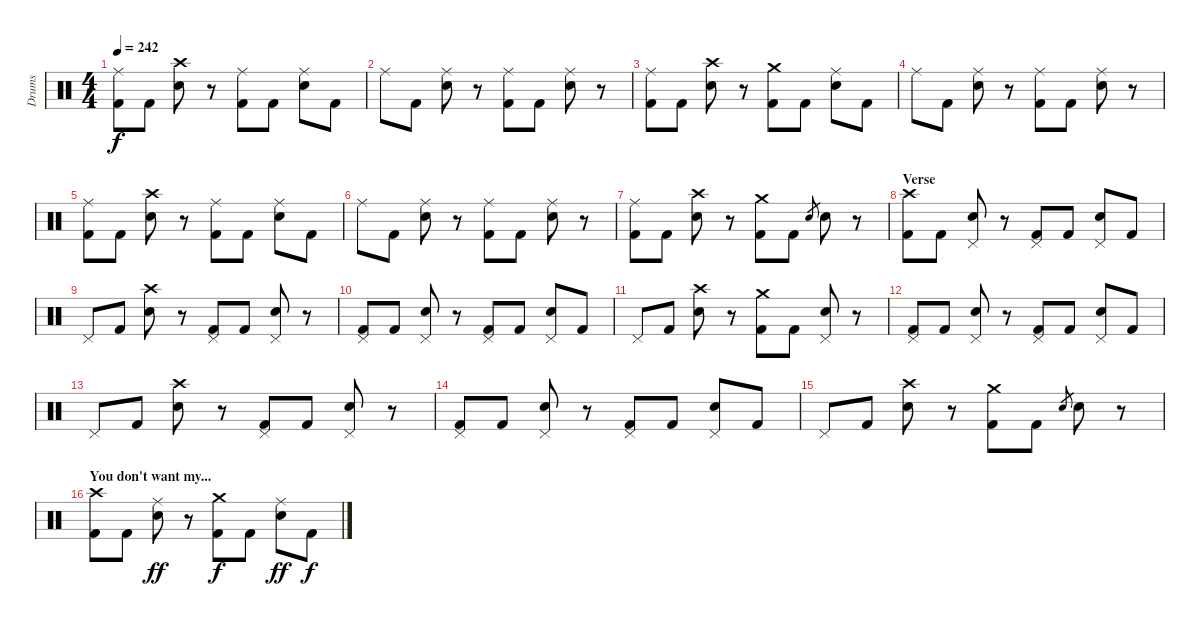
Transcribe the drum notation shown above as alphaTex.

\track ("Drums" "Drums") {instrument percussion}
\staff {score}
\articulation defaults
\ts (4 4)
\tempo 242
\clef neutral
\ks c
("Ride (middle)" "Kick (hit) 2").8{dy f} "Kick (hit) 2".8 ("Electric Snare (hit)" "Crash high (hit)").8 r.8 ("Ride (middle)" "Kick (hit) 2").8 "Kick (hit) 2".8 ("Ride (middle)" "Electric Snare (hit)").8 "Kick (hit) 2".8 |
"Ride (middle)".8 "Kick (hit) 2".8 ("Ride (middle)" "Electric Snare (hit)").8 r.8 ("Ride (middle)" "Kick (hit) 2").8 "Kick (hit) 2".8 ("Ride (middle)" "Electric Snare (hit)").8 r.8 |
("Ride (middle)" "Kick (hit) 2").8 "Kick (hit) 2".8 ("Electric Snare (hit)" "Crash high (hit)").8 r.8 ("Crash medium (hit)" "Kick (hit) 2").8 "Kick (hit) 2".8 ("Ride (middle)" "Electric Snare (hit)").8 "Kick (hit) 2".8 |
"Ride (middle)".8 "Kick (hit) 2".8 ("Ride (middle)" "Electric Snare (hit)").8 r.8 ("Ride (middle)" "Kick (hit) 2").8 "Kick (hit) 2".8 ("Ride (middle)" "Electric Snare (hit)").8 r.8 |
("Ride (middle)" "Kick (hit) 2").8 "Kick (hit) 2".8 ("Electric Snare (hit)" "Crash high (hit)").8 r.8 ("Ride (middle)" "Kick (hit) 2").8 "Kick (hit) 2".8 ("Ride (middle)" "Electric Snare (hit)").8 "Kick (hit) 2".8 |
"Ride (middle)".8 "Kick (hit) 2".8 ("Ride (middle)" "Electric Snare (hit)").8 r.8 ("Ride (middle)" "Kick (hit) 2").8 "Kick (hit) 2".8 ("Ride (middle)" "Electric Snare (hit)").8 r.8 |
("Ride (middle)" "Kick (hit) 2").8 "Kick (hit) 2".8 ("Electric Snare (hit)" "Crash high (hit)").8 r.8 ("Crash medium (hit)" "Kick (hit) 2").8 "Kick (hit) 2".8 "Electric Snare (hit)".8{gr} "Electric Snare (hit)".8 r.8 |
\section ("" "Verse")
("Crash high (hit)" "Kick (hit) 2").8 "Kick (hit) 2".8 ("Pedal Hi-Hat (hit)" "Electric Snare (hit)").8 r.8 ("Pedal Hi-Hat (hit)" "Kick (hit) 2").8 "Kick (hit) 2".8 ("Pedal Hi-Hat (hit)" "Electric Snare (hit)").8 "Kick (hit) 2".8 |
"Pedal Hi-Hat (hit)".8 "Kick (hit) 2".8 ("Electric Snare (hit)" "Crash high (hit)").8 r.8 ("Pedal Hi-Hat (hit)" "Kick (hit) 2").8 "Kick (hit) 2".8 ("Pedal Hi-Hat (hit)" "Electric Snare (hit)").8 r.8 |
("Pedal Hi-Hat (hit)" "Kick (hit) 2").8 "Kick (hit) 2".8 ("Pedal Hi-Hat (hit)" "Electric Snare (hit)").8 r.8 ("Pedal Hi-Hat (hit)" "Kick (hit) 2").8 "Kick (hit) 2".8 ("Pedal Hi-Hat (hit)" "Electric Snare (hit)").8 "Kick (hit) 2".8 |
"Pedal Hi-Hat (hit)".8 "Kick (hit) 2".8 ("Electric Snare (hit)" "Crash high (hit)").8 r.8 ("Crash medium (hit)" "Kick (hit) 2").8 "Kick (hit) 2".8 ("Pedal Hi-Hat (hit)" "Electric Snare (hit)").8 r.8 |
("Pedal Hi-Hat (hit)" "Kick (hit) 2").8 "Kick (hit) 2".8 ("Pedal Hi-Hat (hit)" "Electric Snare (hit)").8 r.8 ("Pedal Hi-Hat (hit)" "Kick (hit) 2").8 "Kick (hit) 2".8 ("Pedal Hi-Hat (hit)" "Electric Snare (hit)").8 "Kick (hit) 2".8 |
"Pedal Hi-Hat (hit)".8 "Kick (hit) 2".8 ("Electric Snare (hit)" "Crash high (hit)").8 r.8 ("Pedal Hi-Hat (hit)" "Kick (hit) 2").8 "Kick (hit) 2".8 ("Pedal Hi-Hat (hit)" "Electric Snare (hit)").8 r.8 |
("Pedal Hi-Hat (hit)" "Kick (hit) 2").8 "Kick (hit) 2".8 ("Pedal Hi-Hat (hit)" "Electric Snare (hit)").8 r.8 ("Pedal Hi-Hat (hit)" "Kick (hit) 2").8 "Kick (hit) 2".8 ("Pedal Hi-Hat (hit)" "Electric Snare (hit)").8 "Kick (hit) 2".8 |
"Pedal Hi-Hat (hit)".8 "Kick (hit) 2".8 ("Electric Snare (hit)" "Crash high (hit)").8 r.8 ("Crash medium (hit)" "Kick (hit) 2").8 "Kick (hit) 2".8 "Electric Snare (hit)".8{gr} "Electric Snare (hit)".8 r.8 |
\section ("" "You don't want my...")
("Crash high (hit)" "Kick (hit) 2").8 "Kick (hit) 2".8 ("Ride (middle)" "Electric Snare (hit)").8{dy ff} r.8 ("Crash medium (hit)" "Kick (hit) 2").8{dy f} "Kick (hit) 2".8 ("Ride (middle)" "Electric Snare (hit)").8{dy ff} "Kick (hit) 2".8{dy f}
